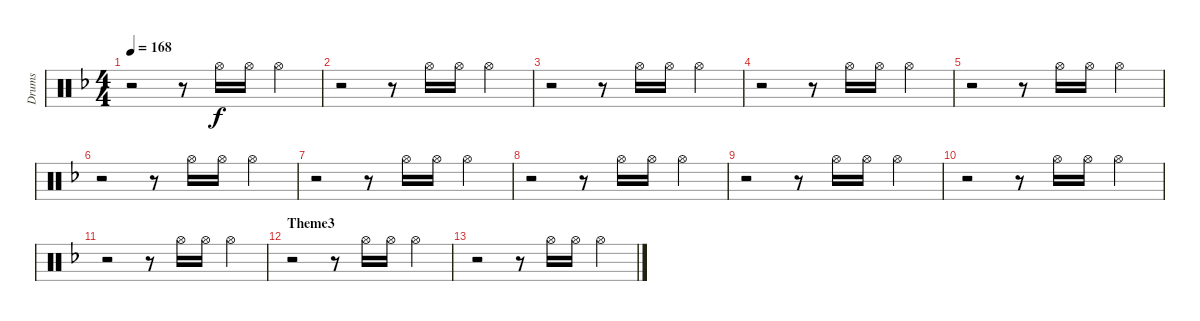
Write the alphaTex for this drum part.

\track ("Drums" "Drums") {instrument percussion}
\staff {score}
\articulation defaults
\ts (4 4)
\tempo 168
\clef neutral
\ks f
r.2{dy f} r.8 "Hi-Hat (open)".16 "Hi-Hat (open)".16 "Hi-Hat (open)".4 |
r.2 r.8 "Hi-Hat (open)".16 "Hi-Hat (open)".16 "Hi-Hat (open)".4 |
r.2 r.8 "Hi-Hat (open)".16 "Hi-Hat (open)".16 "Hi-Hat (open)".4 |
r.2 r.8 "Hi-Hat (open)".16 "Hi-Hat (open)".16 "Hi-Hat (open)".4 |
r.2 r.8 "Hi-Hat (open)".16 "Hi-Hat (open)".16 "Hi-Hat (open)".4 |
r.2 r.8 "Hi-Hat (open)".16 "Hi-Hat (open)".16 "Hi-Hat (open)".4 |
r.2 r.8 "Hi-Hat (open)".16 "Hi-Hat (open)".16 "Hi-Hat (open)".4 |
r.2 r.8 "Hi-Hat (open)".16 "Hi-Hat (open)".16 "Hi-Hat (open)".4 |
r.2 r.8 "Hi-Hat (open)".16 "Hi-Hat (open)".16 "Hi-Hat (open)".4 |
r.2 r.8 "Hi-Hat (open)".16 "Hi-Hat (open)".16 "Hi-Hat (open)".4 |
r.2 r.8 "Hi-Hat (open)".16 "Hi-Hat (open)".16 "Hi-Hat (open)".4 |
\section ("" "Theme3")
r.2 r.8 "Hi-Hat (open)".16 "Hi-Hat (open)".16 "Hi-Hat (open)".4 |
r.2 r.8 "Hi-Hat (open)".16 "Hi-Hat (open)".16 "Hi-Hat (open)".4
